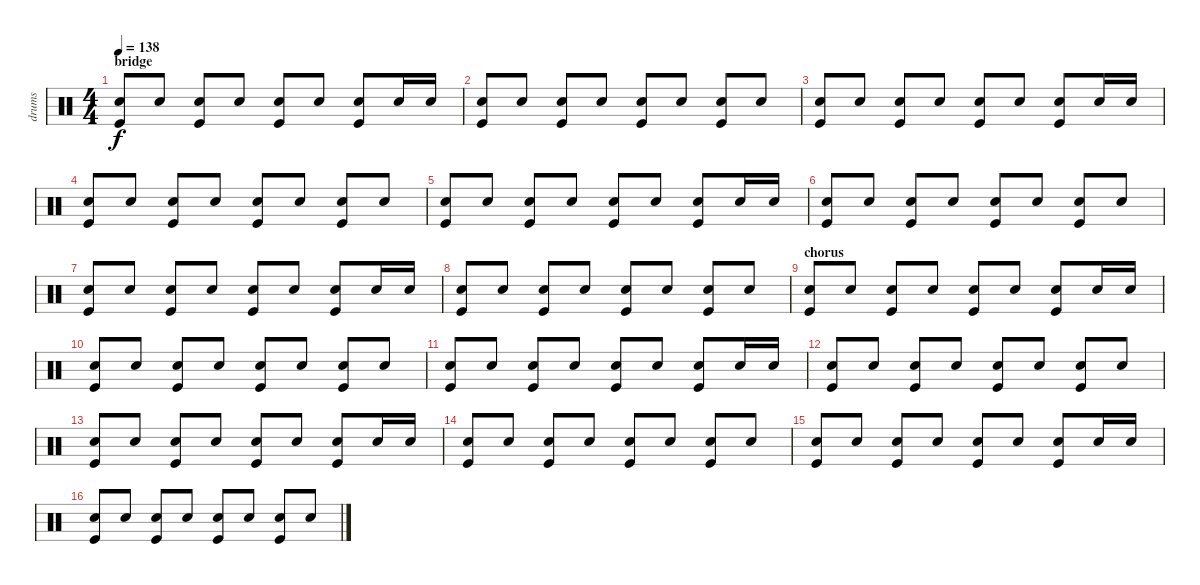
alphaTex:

\track ("drums" "drums") {instrument percussion}
\staff {score}
\articulation defaults
\ts (4 4)
\section ("" "bridge")
\tempo 138
\clef neutral
\ks c
("Snare (hit) 2" "Kick (hit)").8{dy f} "Snare (hit) 2".8 ("Snare (hit) 2" "Kick (hit)").8 "Snare (hit) 2".8 ("Snare (hit) 2" "Kick (hit)").8 "Snare (hit) 2".8 ("Snare (hit) 2" "Kick (hit)").8 "Snare (hit) 2".16{volume 11} "Snare (hit) 2".16 |
("Snare (hit) 2" "Kick (hit)").8 "Snare (hit) 2".8 ("Snare (hit) 2" "Kick (hit)").8 "Snare (hit) 2".8 ("Snare (hit) 2" "Kick (hit)").8 "Snare (hit) 2".8 ("Snare (hit) 2" "Kick (hit)").8 "Snare (hit) 2".8 |
("Snare (hit) 2" "Kick (hit)").8 "Snare (hit) 2".8 ("Snare (hit) 2" "Kick (hit)").8 "Snare (hit) 2".8 ("Snare (hit) 2" "Kick (hit)").8 "Snare (hit) 2".8 ("Snare (hit) 2" "Kick (hit)").8 "Snare (hit) 2".16{volume 11} "Snare (hit) 2".16 |
("Snare (hit) 2" "Kick (hit)").8 "Snare (hit) 2".8 ("Snare (hit) 2" "Kick (hit)").8 "Snare (hit) 2".8 ("Snare (hit) 2" "Kick (hit)").8 "Snare (hit) 2".8 ("Snare (hit) 2" "Kick (hit)").8 "Snare (hit) 2".8 |
("Snare (hit) 2" "Kick (hit)").8 "Snare (hit) 2".8 ("Snare (hit) 2" "Kick (hit)").8 "Snare (hit) 2".8 ("Snare (hit) 2" "Kick (hit)").8 "Snare (hit) 2".8 ("Snare (hit) 2" "Kick (hit)").8 "Snare (hit) 2".16{volume 11} "Snare (hit) 2".16 |
("Snare (hit) 2" "Kick (hit)").8 "Snare (hit) 2".8 ("Snare (hit) 2" "Kick (hit)").8 "Snare (hit) 2".8 ("Snare (hit) 2" "Kick (hit)").8 "Snare (hit) 2".8 ("Snare (hit) 2" "Kick (hit)").8 "Snare (hit) 2".8 |
("Snare (hit) 2" "Kick (hit)").8 "Snare (hit) 2".8 ("Snare (hit) 2" "Kick (hit)").8 "Snare (hit) 2".8 ("Snare (hit) 2" "Kick (hit)").8 "Snare (hit) 2".8 ("Snare (hit) 2" "Kick (hit)").8 "Snare (hit) 2".16{volume 11} "Snare (hit) 2".16 |
("Snare (hit) 2" "Kick (hit)").8 "Snare (hit) 2".8 ("Snare (hit) 2" "Kick (hit)").8 "Snare (hit) 2".8 ("Snare (hit) 2" "Kick (hit)").8 "Snare (hit) 2".8 ("Snare (hit) 2" "Kick (hit)").8 "Snare (hit) 2".8 |
\section ("" "chorus")
("Snare (hit) 2" "Kick (hit)").8 "Snare (hit) 2".8 ("Snare (hit) 2" "Kick (hit)").8 "Snare (hit) 2".8 ("Snare (hit) 2" "Kick (hit)").8 "Snare (hit) 2".8 ("Snare (hit) 2" "Kick (hit)").8 "Snare (hit) 2".16{volume 11} "Snare (hit) 2".16 |
("Snare (hit) 2" "Kick (hit)").8 "Snare (hit) 2".8 ("Snare (hit) 2" "Kick (hit)").8 "Snare (hit) 2".8 ("Snare (hit) 2" "Kick (hit)").8 "Snare (hit) 2".8 ("Snare (hit) 2" "Kick (hit)").8 "Snare (hit) 2".8 |
("Snare (hit) 2" "Kick (hit)").8 "Snare (hit) 2".8 ("Snare (hit) 2" "Kick (hit)").8 "Snare (hit) 2".8 ("Snare (hit) 2" "Kick (hit)").8 "Snare (hit) 2".8 ("Snare (hit) 2" "Kick (hit)").8 "Snare (hit) 2".16{volume 11} "Snare (hit) 2".16 |
("Snare (hit) 2" "Kick (hit)").8 "Snare (hit) 2".8 ("Snare (hit) 2" "Kick (hit)").8 "Snare (hit) 2".8 ("Snare (hit) 2" "Kick (hit)").8 "Snare (hit) 2".8 ("Snare (hit) 2" "Kick (hit)").8 "Snare (hit) 2".8 |
("Snare (hit) 2" "Kick (hit)").8 "Snare (hit) 2".8 ("Snare (hit) 2" "Kick (hit)").8 "Snare (hit) 2".8 ("Snare (hit) 2" "Kick (hit)").8 "Snare (hit) 2".8 ("Snare (hit) 2" "Kick (hit)").8 "Snare (hit) 2".16{volume 11} "Snare (hit) 2".16 |
("Snare (hit) 2" "Kick (hit)").8 "Snare (hit) 2".8 ("Snare (hit) 2" "Kick (hit)").8 "Snare (hit) 2".8 ("Snare (hit) 2" "Kick (hit)").8 "Snare (hit) 2".8 ("Snare (hit) 2" "Kick (hit)").8 "Snare (hit) 2".8 |
("Snare (hit) 2" "Kick (hit)").8 "Snare (hit) 2".8 ("Snare (hit) 2" "Kick (hit)").8 "Snare (hit) 2".8 ("Snare (hit) 2" "Kick (hit)").8 "Snare (hit) 2".8 ("Snare (hit) 2" "Kick (hit)").8 "Snare (hit) 2".16{volume 11} "Snare (hit) 2".16 |
("Snare (hit) 2" "Kick (hit)").8 "Snare (hit) 2".8 ("Snare (hit) 2" "Kick (hit)").8 "Snare (hit) 2".8 ("Snare (hit) 2" "Kick (hit)").8 "Snare (hit) 2".8 ("Snare (hit) 2" "Kick (hit)").8 "Snare (hit) 2".8
